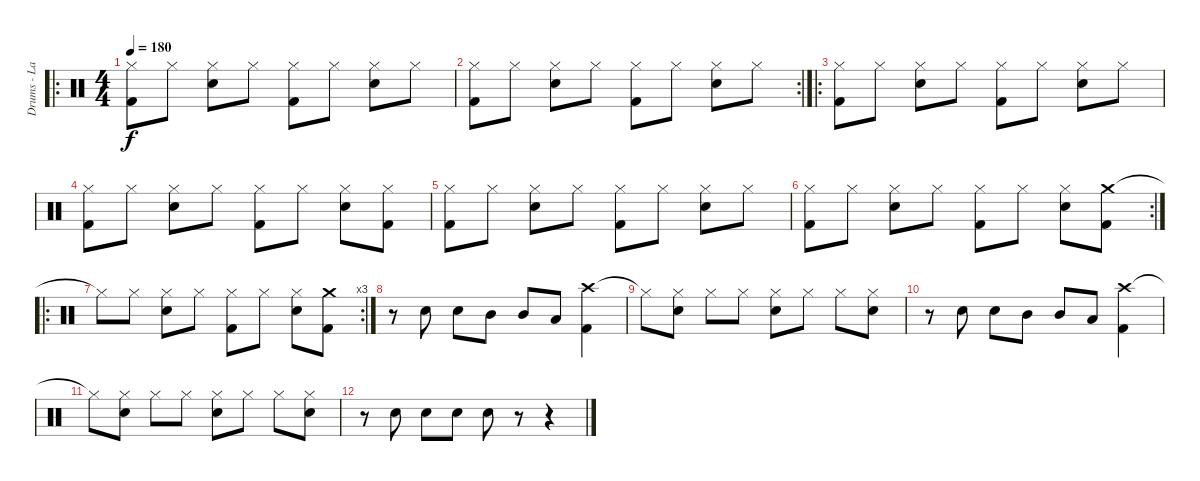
\track ("Drums - Lars" "Drums - La") {instrument percussion}
\staff {score}
\articulation defaults
\ro
\ts (4 4)
\tempo 180
\clef neutral
\ks c
("Hi-Hat (closed)" "Kick (hit) 2").8{dy f} "Hi-Hat (closed)".8 ("Hi-Hat (closed)" "Snare (hit) 2").8 "Hi-Hat (closed)".8 ("Hi-Hat (closed)" "Kick (hit) 2").8 "Hi-Hat (closed)".8 ("Hi-Hat (closed)" "Snare (hit) 2").8 "Hi-Hat (closed)".8 |
\rc 2
("Hi-Hat (closed)" "Kick (hit) 2").8 "Hi-Hat (closed)".8 ("Hi-Hat (closed)" "Snare (hit) 2").8 "Hi-Hat (closed)".8 ("Hi-Hat (closed)" "Kick (hit) 2").8 "Hi-Hat (closed)".8 ("Hi-Hat (closed)" "Snare (hit) 2").8 "Hi-Hat (closed)".8 |
\ro
("Hi-Hat (closed)" "Kick (hit) 2").8 "Hi-Hat (closed)".8 ("Hi-Hat (closed)" "Snare (hit) 2").8 "Hi-Hat (closed)".8 ("Hi-Hat (closed)" "Kick (hit) 2").8 "Hi-Hat (closed)".8 ("Hi-Hat (closed)" "Snare (hit) 2").8 "Hi-Hat (closed)".8 |
("Hi-Hat (closed)" "Kick (hit) 2").8 "Hi-Hat (closed)".8 ("Hi-Hat (closed)" "Snare (hit) 2").8 "Hi-Hat (closed)".8 ("Hi-Hat (closed)" "Kick (hit) 2").8 "Hi-Hat (closed)".8 ("Hi-Hat (closed)" "Snare (hit) 2").8 ("Hi-Hat (closed)" "Kick (hit) 2").8 |
("Hi-Hat (closed)" "Kick (hit) 2").8 "Hi-Hat (closed)".8 ("Hi-Hat (closed)" "Snare (hit) 2").8 "Hi-Hat (closed)".8 ("Hi-Hat (closed)" "Kick (hit) 2").8 "Hi-Hat (closed)".8 ("Hi-Hat (closed)" "Snare (hit) 2").8 "Hi-Hat (closed)".8 |
\rc 2
("Hi-Hat (closed)" "Kick (hit) 2").8 "Hi-Hat (closed)".8 ("Hi-Hat (closed)" "Snare (hit) 2").8 "Hi-Hat (closed)".8 ("Hi-Hat (closed)" "Kick (hit) 2").8 "Hi-Hat (closed)".8 ("Hi-Hat (closed)" "Snare (hit) 2").8 ("Crash medium (hit)" "Kick (hit) 2").8 |
\ro
\rc 3 "Hi-Hat (closed)"{t}.8 "Hi-Hat (closed)".8
("Hi-Hat (closed)" "Snare (hit) 2").8 "Hi-Hat (closed)".8 ("Hi-Hat (closed)" "Kick (hit) 2").8 "Hi-Hat (closed)".8 ("Hi-Hat (closed)" "Snare (hit) 2").8 ("Crash medium (hit)" "Kick (hit) 2").8 |
r.8 "Snare (hit) 2".8 "Snare (hit) 2".8 "Mid Tom (hit)".8 "Mid Tom (hit)".8 "Low Tom (hit)".8 ("Crash high (hit)" "Kick (hit) 2").4 |
"Hi-Hat (closed)"{t}.8 ("Hi-Hat (closed)" "Snare (hit) 2").8 "Hi-Hat (closed)".8 "Hi-Hat (closed)".8 ("Hi-Hat (closed)" "Snare (hit) 2").8 "Hi-Hat (closed)".8 "Hi-Hat (closed)".8 ("Hi-Hat (closed)" "Snare (hit) 2").8 |
r.8 "Snare (hit) 2".8 "Snare (hit) 2".8 "Mid Tom (hit)".8 "Mid Tom (hit)".8 "Low Tom (hit)".8 ("Crash high (hit)" "Kick (hit) 2").4 |
"Hi-Hat (closed)"{t}.8 ("Hi-Hat (closed)" "Snare (hit) 2").8 "Hi-Hat (closed)".8 "Hi-Hat (closed)".8 ("Hi-Hat (closed)" "Snare (hit) 2").8 "Hi-Hat (closed)".8 "Hi-Hat (closed)".8 ("Hi-Hat (closed)" "Snare (hit) 2").8 |
r.8 "Snare (hit) 2".8 "Snare (hit) 2".8 "Snare (hit) 2".8 "Snare (hit) 2".8 r.8 r.4
